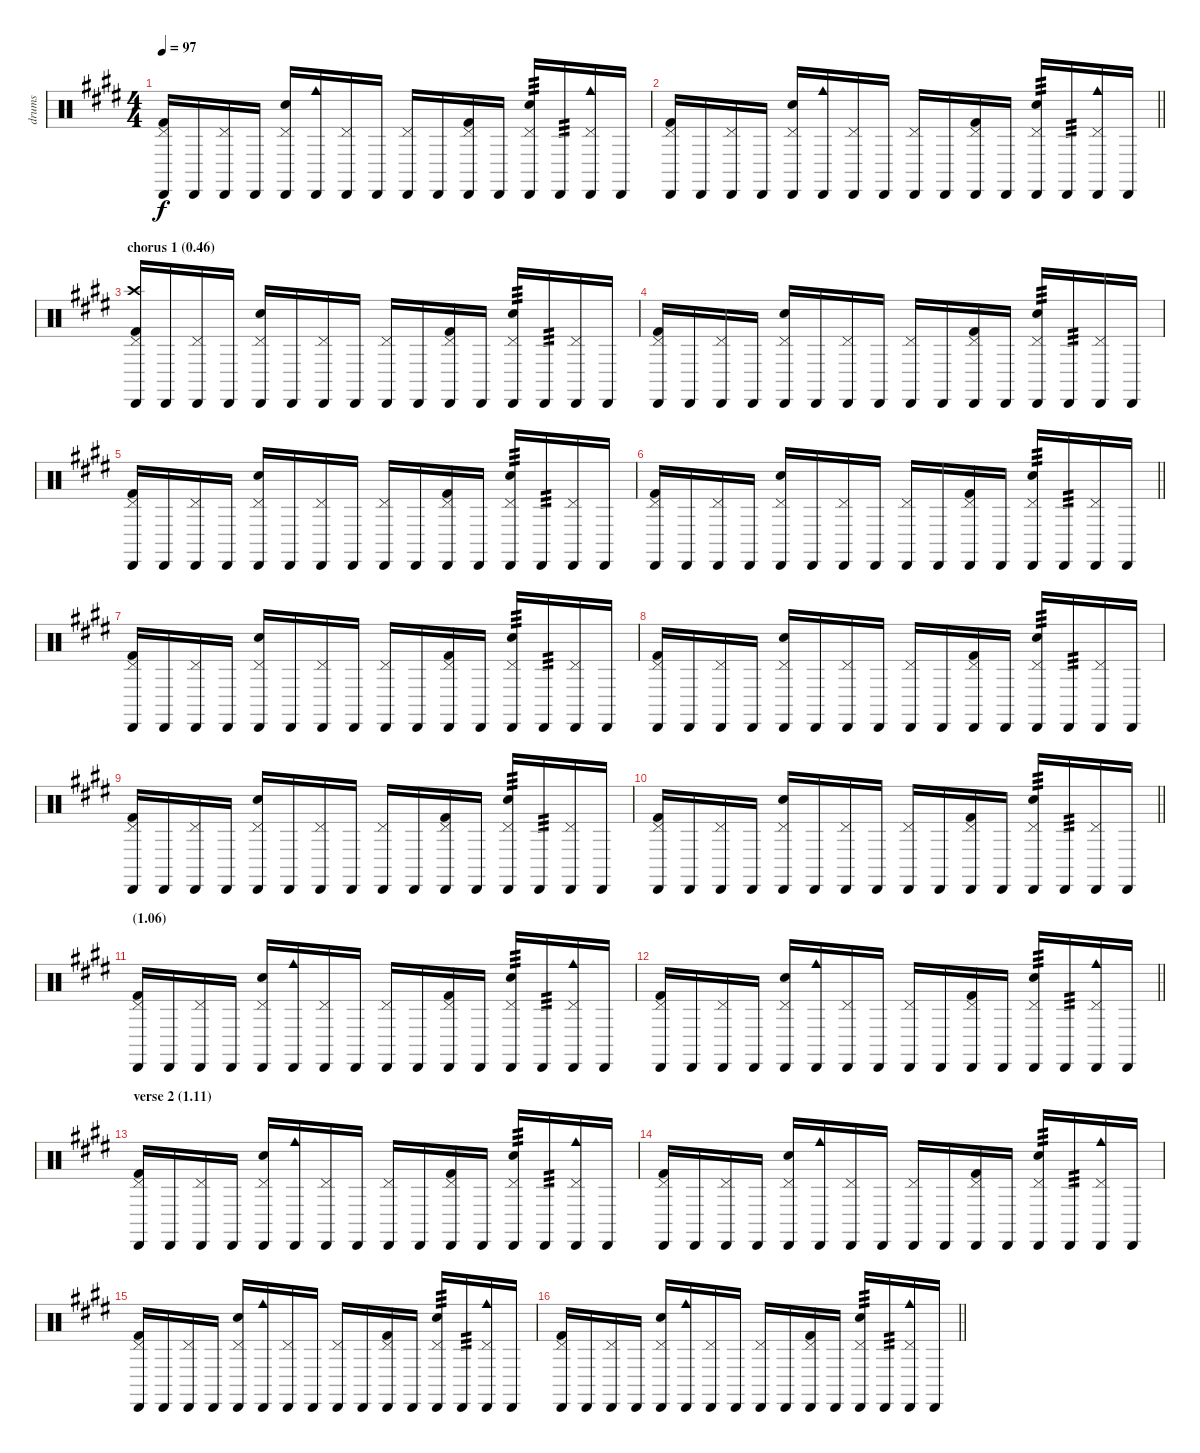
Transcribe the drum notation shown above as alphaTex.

\track ("drums" "drums") {instrument percussion}
\staff {score}
\articulation defaults
\ts (4 4)
\tempo 97
\clef neutral
\ks e
("Pedal Hi-Hat (hit)" "Cabasa (hit)" "Kick (hit) 2").16{dy f} "Cabasa (hit)".16 ("Pedal Hi-Hat (hit)" "Cabasa (hit)").16 "Cabasa (hit)".16 ("Pedal Hi-Hat (hit)" "Cabasa (hit)" "Electric Snare (hit)").16 ("Cabasa (hit)" "Cowbell medium (hit)").16 ("Pedal Hi-Hat (hit)" "Cabasa (hit)").16 "Cabasa (hit)".16 ("Pedal Hi-Hat (hit)" "Cabasa (hit)").16 "Cabasa (hit)".16 ("Pedal Hi-Hat (hit)" "Cabasa (hit)" "Kick (hit) 2").16 "Cabasa (hit)".16 ("Pedal Hi-Hat (hit)" "Cabasa (hit)" "Electric Snare (hit)").16{tp 3} "Cabasa (hit)".16{tp 3} ("Pedal Hi-Hat (hit)" "Cabasa (hit)" "Cowbell medium (hit)").16 "Cabasa (hit)".16 |
\barLineRight lightlight
("Pedal Hi-Hat (hit)" "Cabasa (hit)" "Kick (hit) 2").16 "Cabasa (hit)".16 ("Pedal Hi-Hat (hit)" "Cabasa (hit)").16 "Cabasa (hit)".16 ("Pedal Hi-Hat (hit)" "Cabasa (hit)" "Electric Snare (hit)").16 ("Cabasa (hit)" "Cowbell medium (hit)").16 ("Pedal Hi-Hat (hit)" "Cabasa (hit)").16 "Cabasa (hit)".16 ("Pedal Hi-Hat (hit)" "Cabasa (hit)").16 "Cabasa (hit)".16 ("Pedal Hi-Hat (hit)" "Cabasa (hit)" "Kick (hit) 2").16 "Cabasa (hit)".16 ("Pedal Hi-Hat (hit)" "Cabasa (hit)" "Electric Snare (hit)").16{tp 3} "Cabasa (hit)".16{tp 3} ("Pedal Hi-Hat (hit)" "Cabasa (hit)" "Cowbell medium (hit)").16 "Cabasa (hit)".16 |
\section ("" "chorus 1 (0.46)")
("Pedal Hi-Hat (hit)" "Cabasa (hit)" "Crash high (hit)" "Kick (hit) 2").16 "Cabasa (hit)".16 ("Pedal Hi-Hat (hit)" "Cabasa (hit)").16 "Cabasa (hit)".16 ("Pedal Hi-Hat (hit)" "Cabasa (hit)" "Electric Snare (hit)").16 "Cabasa (hit)".16 ("Pedal Hi-Hat (hit)" "Cabasa (hit)").16 "Cabasa (hit)".16 ("Pedal Hi-Hat (hit)" "Cabasa (hit)").16 "Cabasa (hit)".16 ("Pedal Hi-Hat (hit)" "Cabasa (hit)" "Kick (hit) 2").16 "Cabasa (hit)".16 ("Pedal Hi-Hat (hit)" "Cabasa (hit)" "Electric Snare (hit)").16{tp 3} "Cabasa (hit)".16{tp 3} ("Pedal Hi-Hat (hit)" "Cabasa (hit)").16 "Cabasa (hit)".16 |
("Pedal Hi-Hat (hit)" "Cabasa (hit)" "Kick (hit) 2").16 "Cabasa (hit)".16 ("Pedal Hi-Hat (hit)" "Cabasa (hit)").16 "Cabasa (hit)".16 ("Pedal Hi-Hat (hit)" "Cabasa (hit)" "Electric Snare (hit)").16 "Cabasa (hit)".16 ("Pedal Hi-Hat (hit)" "Cabasa (hit)").16 "Cabasa (hit)".16 ("Pedal Hi-Hat (hit)" "Cabasa (hit)").16 "Cabasa (hit)".16 ("Pedal Hi-Hat (hit)" "Cabasa (hit)" "Kick (hit) 2").16 "Cabasa (hit)".16 ("Pedal Hi-Hat (hit)" "Cabasa (hit)" "Electric Snare (hit)").16{tp 3} "Cabasa (hit)".16{tp 3} ("Pedal Hi-Hat (hit)" "Cabasa (hit)").16 "Cabasa (hit)".16 |
("Pedal Hi-Hat (hit)" "Cabasa (hit)" "Kick (hit) 2").16 "Cabasa (hit)".16 ("Pedal Hi-Hat (hit)" "Cabasa (hit)").16 "Cabasa (hit)".16 ("Pedal Hi-Hat (hit)" "Cabasa (hit)" "Electric Snare (hit)").16 "Cabasa (hit)".16 ("Pedal Hi-Hat (hit)" "Cabasa (hit)").16 "Cabasa (hit)".16 ("Pedal Hi-Hat (hit)" "Cabasa (hit)").16 "Cabasa (hit)".16 ("Pedal Hi-Hat (hit)" "Cabasa (hit)" "Kick (hit) 2").16 "Cabasa (hit)".16 ("Pedal Hi-Hat (hit)" "Cabasa (hit)" "Electric Snare (hit)").16{tp 3} "Cabasa (hit)".16{tp 3} ("Pedal Hi-Hat (hit)" "Cabasa (hit)").16 "Cabasa (hit)".16 |
\barLineRight lightlight
("Pedal Hi-Hat (hit)" "Cabasa (hit)" "Kick (hit) 2").16 "Cabasa (hit)".16 ("Pedal Hi-Hat (hit)" "Cabasa (hit)").16 "Cabasa (hit)".16 ("Pedal Hi-Hat (hit)" "Cabasa (hit)" "Electric Snare (hit)").16 "Cabasa (hit)".16 ("Pedal Hi-Hat (hit)" "Cabasa (hit)").16 "Cabasa (hit)".16 ("Pedal Hi-Hat (hit)" "Cabasa (hit)").16 "Cabasa (hit)".16 ("Pedal Hi-Hat (hit)" "Cabasa (hit)" "Kick (hit) 2").16 "Cabasa (hit)".16 ("Pedal Hi-Hat (hit)" "Cabasa (hit)" "Electric Snare (hit)").16{tp 3} "Cabasa (hit)".16{tp 3} ("Pedal Hi-Hat (hit)" "Cabasa (hit)").16 "Cabasa (hit)".16 |
("Pedal Hi-Hat (hit)" "Cabasa (hit)" "Kick (hit) 2").16 "Cabasa (hit)".16 ("Pedal Hi-Hat (hit)" "Cabasa (hit)").16 "Cabasa (hit)".16 ("Pedal Hi-Hat (hit)" "Cabasa (hit)" "Electric Snare (hit)").16 "Cabasa (hit)".16 ("Pedal Hi-Hat (hit)" "Cabasa (hit)").16 "Cabasa (hit)".16 ("Pedal Hi-Hat (hit)" "Cabasa (hit)").16 "Cabasa (hit)".16 ("Pedal Hi-Hat (hit)" "Cabasa (hit)" "Kick (hit) 2").16 "Cabasa (hit)".16 ("Pedal Hi-Hat (hit)" "Cabasa (hit)" "Electric Snare (hit)").16{tp 3} "Cabasa (hit)".16{tp 3} ("Pedal Hi-Hat (hit)" "Cabasa (hit)").16 "Cabasa (hit)".16 |
("Pedal Hi-Hat (hit)" "Cabasa (hit)" "Kick (hit) 2").16 "Cabasa (hit)".16 ("Pedal Hi-Hat (hit)" "Cabasa (hit)").16 "Cabasa (hit)".16 ("Pedal Hi-Hat (hit)" "Cabasa (hit)" "Electric Snare (hit)").16 "Cabasa (hit)".16 ("Pedal Hi-Hat (hit)" "Cabasa (hit)").16 "Cabasa (hit)".16 ("Pedal Hi-Hat (hit)" "Cabasa (hit)").16 "Cabasa (hit)".16 ("Pedal Hi-Hat (hit)" "Cabasa (hit)" "Kick (hit) 2").16 "Cabasa (hit)".16 ("Pedal Hi-Hat (hit)" "Cabasa (hit)" "Electric Snare (hit)").16{tp 3} "Cabasa (hit)".16{tp 3} ("Pedal Hi-Hat (hit)" "Cabasa (hit)").16 "Cabasa (hit)".16 |
("Pedal Hi-Hat (hit)" "Cabasa (hit)" "Kick (hit) 2").16 "Cabasa (hit)".16 ("Pedal Hi-Hat (hit)" "Cabasa (hit)").16 "Cabasa (hit)".16 ("Pedal Hi-Hat (hit)" "Cabasa (hit)" "Electric Snare (hit)").16 "Cabasa (hit)".16 ("Pedal Hi-Hat (hit)" "Cabasa (hit)").16 "Cabasa (hit)".16 ("Pedal Hi-Hat (hit)" "Cabasa (hit)").16 "Cabasa (hit)".16 ("Pedal Hi-Hat (hit)" "Cabasa (hit)" "Kick (hit) 2").16 "Cabasa (hit)".16 ("Pedal Hi-Hat (hit)" "Cabasa (hit)" "Electric Snare (hit)").16{tp 3} "Cabasa (hit)".16{tp 3} ("Pedal Hi-Hat (hit)" "Cabasa (hit)").16 "Cabasa (hit)".16 |
\barLineRight lightlight
("Pedal Hi-Hat (hit)" "Cabasa (hit)" "Kick (hit) 2").16 "Cabasa (hit)".16 ("Pedal Hi-Hat (hit)" "Cabasa (hit)").16 "Cabasa (hit)".16 ("Pedal Hi-Hat (hit)" "Cabasa (hit)" "Electric Snare (hit)").16 "Cabasa (hit)".16 ("Pedal Hi-Hat (hit)" "Cabasa (hit)").16 "Cabasa (hit)".16 ("Pedal Hi-Hat (hit)" "Cabasa (hit)").16 "Cabasa (hit)".16 ("Pedal Hi-Hat (hit)" "Cabasa (hit)" "Kick (hit) 2").16 "Cabasa (hit)".16 ("Pedal Hi-Hat (hit)" "Cabasa (hit)" "Electric Snare (hit)").16{tp 3} "Cabasa (hit)".16{tp 3} ("Pedal Hi-Hat (hit)" "Cabasa (hit)").16 "Cabasa (hit)".16 |
\section ("" "(1.06)")
("Pedal Hi-Hat (hit)" "Cabasa (hit)" "Kick (hit) 2").16 "Cabasa (hit)".16 ("Pedal Hi-Hat (hit)" "Cabasa (hit)").16 "Cabasa (hit)".16 ("Pedal Hi-Hat (hit)" "Cabasa (hit)" "Electric Snare (hit)").16 ("Cabasa (hit)" "Cowbell medium (hit)").16 ("Pedal Hi-Hat (hit)" "Cabasa (hit)").16 "Cabasa (hit)".16 ("Pedal Hi-Hat (hit)" "Cabasa (hit)").16 "Cabasa (hit)".16 ("Pedal Hi-Hat (hit)" "Cabasa (hit)" "Kick (hit) 2").16 "Cabasa (hit)".16 ("Pedal Hi-Hat (hit)" "Cabasa (hit)" "Electric Snare (hit)").16{tp 3} "Cabasa (hit)".16{tp 3} ("Pedal Hi-Hat (hit)" "Cabasa (hit)" "Cowbell medium (hit)").16 "Cabasa (hit)".16 |
\barLineRight lightlight
("Pedal Hi-Hat (hit)" "Cabasa (hit)" "Kick (hit) 2").16 "Cabasa (hit)".16 ("Pedal Hi-Hat (hit)" "Cabasa (hit)").16 "Cabasa (hit)".16 ("Pedal Hi-Hat (hit)" "Cabasa (hit)" "Electric Snare (hit)").16 ("Cabasa (hit)" "Cowbell medium (hit)").16 ("Pedal Hi-Hat (hit)" "Cabasa (hit)").16 "Cabasa (hit)".16 ("Pedal Hi-Hat (hit)" "Cabasa (hit)").16 "Cabasa (hit)".16 ("Pedal Hi-Hat (hit)" "Cabasa (hit)" "Kick (hit) 2").16 "Cabasa (hit)".16 ("Pedal Hi-Hat (hit)" "Cabasa (hit)" "Electric Snare (hit)").16{tp 3} "Cabasa (hit)".16{tp 3} ("Pedal Hi-Hat (hit)" "Cabasa (hit)" "Cowbell medium (hit)").16 "Cabasa (hit)".16 |
\section ("" "verse 2 (1.11)")
("Pedal Hi-Hat (hit)" "Cabasa (hit)" "Kick (hit) 2").16 "Cabasa (hit)".16 ("Pedal Hi-Hat (hit)" "Cabasa (hit)").16 "Cabasa (hit)".16 ("Pedal Hi-Hat (hit)" "Cabasa (hit)" "Electric Snare (hit)").16 ("Cabasa (hit)" "Cowbell medium (hit)").16 ("Pedal Hi-Hat (hit)" "Cabasa (hit)").16 "Cabasa (hit)".16 ("Pedal Hi-Hat (hit)" "Cabasa (hit)").16 "Cabasa (hit)".16 ("Pedal Hi-Hat (hit)" "Cabasa (hit)" "Kick (hit) 2").16 "Cabasa (hit)".16 ("Pedal Hi-Hat (hit)" "Cabasa (hit)" "Electric Snare (hit)").16{tp 3} "Cabasa (hit)".16{tp 3} ("Pedal Hi-Hat (hit)" "Cabasa (hit)" "Cowbell medium (hit)").16 "Cabasa (hit)".16 |
("Pedal Hi-Hat (hit)" "Cabasa (hit)" "Kick (hit) 2").16 "Cabasa (hit)".16 ("Pedal Hi-Hat (hit)" "Cabasa (hit)").16 "Cabasa (hit)".16 ("Pedal Hi-Hat (hit)" "Cabasa (hit)" "Electric Snare (hit)").16 ("Cabasa (hit)" "Cowbell medium (hit)").16 ("Pedal Hi-Hat (hit)" "Cabasa (hit)").16 "Cabasa (hit)".16 ("Pedal Hi-Hat (hit)" "Cabasa (hit)").16 "Cabasa (hit)".16 ("Pedal Hi-Hat (hit)" "Cabasa (hit)" "Kick (hit) 2").16 "Cabasa (hit)".16 ("Pedal Hi-Hat (hit)" "Cabasa (hit)" "Electric Snare (hit)").16{tp 3} "Cabasa (hit)".16{tp 3} ("Pedal Hi-Hat (hit)" "Cabasa (hit)" "Cowbell medium (hit)").16 "Cabasa (hit)".16 |
("Pedal Hi-Hat (hit)" "Cabasa (hit)" "Kick (hit) 2").16 "Cabasa (hit)".16 ("Pedal Hi-Hat (hit)" "Cabasa (hit)").16 "Cabasa (hit)".16 ("Pedal Hi-Hat (hit)" "Cabasa (hit)" "Electric Snare (hit)").16 ("Cabasa (hit)" "Cowbell medium (hit)").16 ("Pedal Hi-Hat (hit)" "Cabasa (hit)").16 "Cabasa (hit)".16 ("Pedal Hi-Hat (hit)" "Cabasa (hit)").16 "Cabasa (hit)".16 ("Pedal Hi-Hat (hit)" "Cabasa (hit)" "Kick (hit) 2").16 "Cabasa (hit)".16 ("Pedal Hi-Hat (hit)" "Cabasa (hit)" "Electric Snare (hit)").16{tp 3} "Cabasa (hit)".16{tp 3} ("Pedal Hi-Hat (hit)" "Cabasa (hit)" "Cowbell medium (hit)").16 "Cabasa (hit)".16 |
\barLineRight lightlight
("Pedal Hi-Hat (hit)" "Cabasa (hit)" "Kick (hit) 2").16 "Cabasa (hit)".16 ("Pedal Hi-Hat (hit)" "Cabasa (hit)").16 "Cabasa (hit)".16 ("Pedal Hi-Hat (hit)" "Cabasa (hit)" "Electric Snare (hit)").16 ("Cabasa (hit)" "Cowbell medium (hit)").16 ("Pedal Hi-Hat (hit)" "Cabasa (hit)").16 "Cabasa (hit)".16 ("Pedal Hi-Hat (hit)" "Cabasa (hit)").16 "Cabasa (hit)".16 ("Pedal Hi-Hat (hit)" "Cabasa (hit)" "Kick (hit) 2").16 "Cabasa (hit)".16 ("Pedal Hi-Hat (hit)" "Cabasa (hit)" "Electric Snare (hit)").16{tp 3} "Cabasa (hit)".16{tp 3} ("Pedal Hi-Hat (hit)" "Cabasa (hit)" "Cowbell medium (hit)").16 "Cabasa (hit)".16
